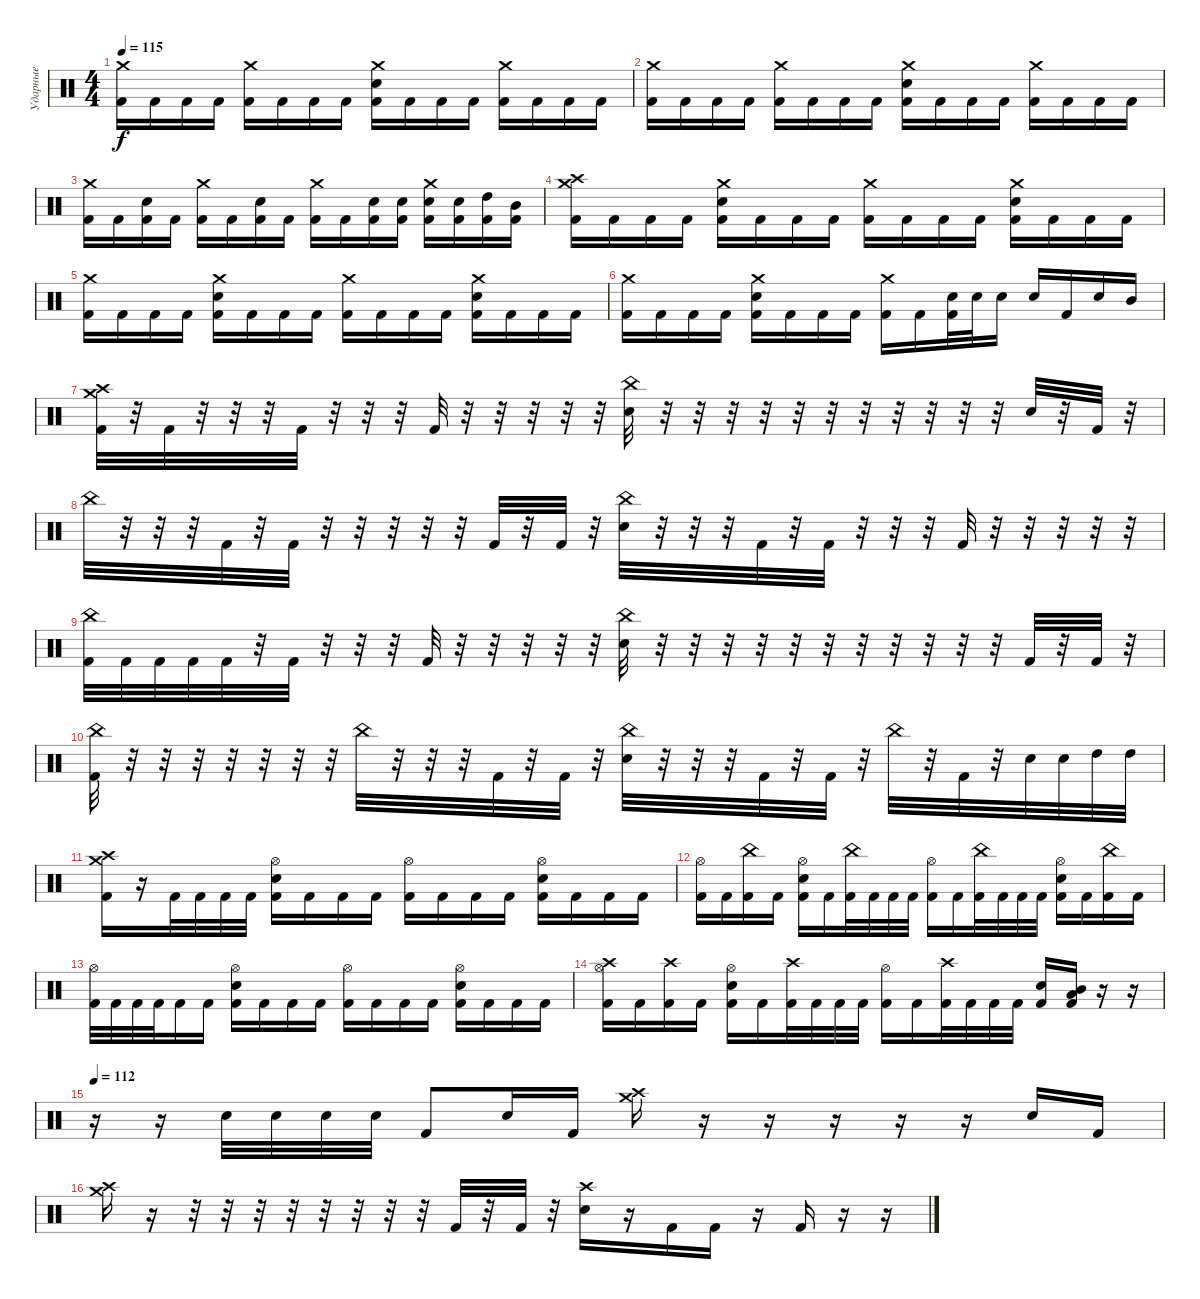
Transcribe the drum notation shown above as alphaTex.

\track ("Ударные" "Ударные") {instrument percussion}
\staff {score}
\articulation defaults
\ts (4 4)
\tempo 115
\clef neutral
\ks c
("Crash medium (hit)" "Kick (hit) 2").16{dy f} "Kick (hit) 2".16 "Kick (hit) 2".16 "Kick (hit) 2".16 ("Crash medium (hit)" "Kick (hit) 2").16 "Kick (hit) 2".16 "Kick (hit) 2".16 "Kick (hit) 2".16 ("Crash medium (hit)" "Electric Snare (hit)" "Kick (hit) 2").16 "Kick (hit) 2".16 "Kick (hit) 2".16 "Kick (hit) 2".16 ("Crash medium (hit)" "Kick (hit) 2").16 "Kick (hit) 2".16 "Kick (hit) 2".16 "Kick (hit) 2".16 |
("Crash medium (hit)" "Kick (hit) 2").16 "Kick (hit) 2".16 "Kick (hit) 2".16 "Kick (hit) 2".16 ("Crash medium (hit)" "Kick (hit) 2").16 "Kick (hit) 2".16 "Kick (hit) 2".16 "Kick (hit) 2".16 ("Crash medium (hit)" "Electric Snare (hit)" "Kick (hit) 2").16 "Kick (hit) 2".16 "Kick (hit) 2".16 "Kick (hit) 2".16 ("Crash medium (hit)" "Kick (hit) 2").16 "Kick (hit) 2".16 "Kick (hit) 2".16 "Kick (hit) 2".16 |
("Crash medium (hit)" "Kick (hit) 2").16 "Kick (hit) 2".16 ("Electric Snare (hit)" "Kick (hit) 2").16 "Kick (hit) 2".16 ("Crash medium (hit)" "Kick (hit) 2").16 "Kick (hit) 2".16 ("Electric Snare (hit)" "Kick (hit) 2").16 "Kick (hit) 2".16 ("Crash medium (hit)" "Kick (hit) 2").16 "Kick (hit) 2".16 ("Electric Snare (hit)" "Kick (hit) 2").16 ("Electric Snare (hit)" "Kick (hit) 2").16 ("Crash medium (hit)" "Electric Snare (hit)" "Kick (hit) 2").16 ("Electric Snare (hit)" "Kick (hit) 2").16 ("High Tom (hit)" "Kick (hit) 2").16 ("Mid Tom (hit)" "Kick (hit) 2").16 |
("Crash medium (hit)" "Crash high (hit)" "Kick (hit) 2").16 "Kick (hit) 2".16 "Kick (hit) 2".16 "Kick (hit) 2".16 ("Crash medium (hit)" "Electric Snare (hit)" "Kick (hit) 2").16 "Kick (hit) 2".16 "Kick (hit) 2".16 "Kick (hit) 2".16 ("Crash medium (hit)" "Kick (hit) 2").16 "Kick (hit) 2".16 "Kick (hit) 2".16 "Kick (hit) 2".16 ("Crash medium (hit)" "Electric Snare (hit)" "Kick (hit) 2").16 "Kick (hit) 2".16 "Kick (hit) 2".16 "Kick (hit) 2".16 |
("Crash medium (hit)" "Kick (hit) 2").16 "Kick (hit) 2".16 "Kick (hit) 2".16 "Kick (hit) 2".16 ("Crash medium (hit)" "Electric Snare (hit)" "Kick (hit) 2").16 "Kick (hit) 2".16 "Kick (hit) 2".16 "Kick (hit) 2".16 ("Crash medium (hit)" "Kick (hit) 2").16 "Kick (hit) 2".16 "Kick (hit) 2".16 "Kick (hit) 2".16 ("Crash medium (hit)" "Electric Snare (hit)" "Kick (hit) 2").16 "Kick (hit) 2".16 "Kick (hit) 2".16 "Kick (hit) 2".16 |
("Crash medium (hit)" "Kick (hit) 2").16 "Kick (hit) 2".16 "Kick (hit) 2".16 "Kick (hit) 2".16 ("Crash medium (hit)" "Electric Snare (hit)" "Kick (hit) 2").16 "Kick (hit) 2".16 "Kick (hit) 2".16 "Kick (hit) 2".16 ("Crash medium (hit)" "Kick (hit) 2").16 "Kick (hit) 2".16 ("Electric Snare (hit)" "Kick (hit) 2").32 "Electric Snare (hit)".32 "Electric Snare (hit)".16 "Electric Snare (hit)".16 "Kick (hit) 2".16 "Electric Snare (hit)".16 "Mid Tom (hit)".16 |
("Crash medium (hit)" "Crash high (hit)" "Kick (hit) 2").32 r.32 "Kick (hit) 2".32 r.32 r.32 r.32 "Kick (hit) 2".32 r.32 r.32 r.32 "Kick (hit) 2".32 r.32 r.32 r.32 r.32 r.32 ("China (hit)" "Electric Snare (hit)").32 r.32 r.32 r.32 r.32 r.32 r.32 r.32 r.32 r.32 r.32 r.32 "Electric Snare (hit)".32 r.32 "Kick (hit) 2".32 r.32 |
"China (hit)".32 r.32 r.32 r.32 "Kick (hit) 2".32 r.32 "Kick (hit) 2".32 r.32 r.32 r.32 r.32 r.32 "Kick (hit) 2".32 r.32 "Kick (hit) 2".32 r.32 ("China (hit)" "Electric Snare (hit)").32 r.32 r.32 r.32 "Kick (hit) 2".32 r.32 "Kick (hit) 2".32 r.32 r.32 r.32 "Kick (hit) 2".32 r.32 r.32 r.32 r.32 r.32 |
("China (hit)" "Kick (hit) 2").32 "Kick (hit) 2".32 "Kick (hit) 2".32 "Kick (hit) 2".32 "Kick (hit) 2".32 r.32 "Kick (hit) 2".32 r.32 r.32 r.32 "Kick (hit) 2".32 r.32 r.32 r.32 r.32 r.32 ("China (hit)" "Electric Snare (hit)").32 r.32 r.32 r.32 r.32 r.32 r.32 r.32 r.32 r.32 r.32 r.32 "Kick (hit) 2".32 r.32 "Kick (hit) 2".32 r.32 |
("China (hit)" "Kick (hit) 2").32 r.32 r.32 r.32 r.32 r.32 r.32 r.32 "China (hit)".32 r.32 r.32 r.32 "Kick (hit) 2".32 r.32 "Kick (hit) 2".32 r.32 ("China (hit)" "Electric Snare (hit)").32 r.32 r.32 r.32 "Kick (hit) 2".32 r.32 "Kick (hit) 2".32 r.32 "China (hit)".32 r.32 "Kick (hit) 2".32 r.32 "Electric Snare (hit)".32 "Electric Snare (hit)".32 "High Tom (hit)".32 "High Tom (hit)".32 |
("Crash high (hit)" "Crash medium (hit)" "Kick (hit) 2").16 r.16 "Kick (hit) 2".32 "Kick (hit) 2".32 "Kick (hit) 2".32 "Kick (hit) 2".32 ("Hi-Hat (open)" "Electric Snare (hit)" "Kick (hit) 2").16 "Kick (hit) 2".16 "Kick (hit) 2".16 "Kick (hit) 2".16 ("Hi-Hat (open)" "Kick (hit) 2").16 "Kick (hit) 2".16 "Kick (hit) 2".16 "Kick (hit) 2".16 ("Hi-Hat (open)" "Electric Snare (hit)" "Kick (hit) 2").16 "Kick (hit) 2".16 "Kick (hit) 2".16 "Kick (hit) 2".16 |
("Hi-Hat (open)" "Kick (hit) 2").16 "Kick (hit) 2".16 ("China (hit)" "Kick (hit) 2").16 "Kick (hit) 2".16 ("Hi-Hat (open)" "Electric Snare (hit)" "Kick (hit) 2").16 "Kick (hit) 2".16 ("China (hit)" "Kick (hit) 2").32 "Kick (hit) 2".32 "Kick (hit) 2".32 "Kick (hit) 2".32 ("Hi-Hat (open)" "Kick (hit) 2").16 "Kick (hit) 2".16 ("China (hit)" "Kick (hit) 2").32 "Kick (hit) 2".32 "Kick (hit) 2".32 "Kick (hit) 2".32 ("Hi-Hat (open)" "Electric Snare (hit)" "Kick (hit) 2").16 "Kick (hit) 2".16 ("China (hit)" "Kick (hit) 2").16 "Kick (hit) 2".16 |
("Hi-Hat (open)" "Kick (hit) 2").32 "Kick (hit) 2".32 "Kick (hit) 2".32 "Kick (hit) 2".32 "Kick (hit) 2".16 "Kick (hit) 2".16 ("Hi-Hat (open)" "Electric Snare (hit)" "Kick (hit) 2").16 "Kick (hit) 2".16 "Kick (hit) 2".16 "Kick (hit) 2".16 ("Hi-Hat (open)" "Kick (hit) 2").16 "Kick (hit) 2".16 "Kick (hit) 2".16 "Kick (hit) 2".16 ("Hi-Hat (open)" "Electric Snare (hit)" "Kick (hit) 2").16 "Kick (hit) 2".16 "Kick (hit) 2".16 "Kick (hit) 2".16 |
("Crash high (hit)" "Hi-Hat (open)" "Kick (hit) 2").16 "Kick (hit) 2".16 ("Crash high (hit)" "Kick (hit) 2").16 "Kick (hit) 2".16 ("Hi-Hat (open)" "Electric Snare (hit)" "Kick (hit) 2").16 "Kick (hit) 2".16 ("Crash high (hit)" "Kick (hit) 2").32 "Kick (hit) 2".32 "Kick (hit) 2".32 "Kick (hit) 2".32 ("Hi-Hat (open)" "Kick (hit) 2").16 "Kick (hit) 2".16 ("Crash high (hit)" "Kick (hit) 2").32 "Kick (hit) 2".32 "Kick (hit) 2".32 "Kick (hit) 2".32 ("Electric Snare (hit)" "Kick (hit) 2").16 ("Mid Tom (hit)" "Low Tom (hit)" "Kick (hit) 2").16 r.16 r.16 |
\tempo 112
r.16 r.16 "Electric Snare (hit)".32 "Electric Snare (hit)".32 "Electric Snare (hit)".32 "Electric Snare (hit)".32 "Kick (hit) 2".8 "Electric Snare (hit)".16 "Kick (hit) 2".16 ("Crash medium (hit)" "Crash high (hit)").16 r.16 r.16 r.16 r.16 r.16 "Electric Snare (hit)".16 "Kick (hit) 2".16 |
("Crash high (hit)" "Crash medium (hit)").16 r.16 r.32 r.32 r.32 r.32 r.32 r.32 r.32 r.32 "Kick (hit) 2".32 r.32 "Kick (hit) 2".32 r.32 ("Crash high (hit)" "Electric Snare (hit)").16 r.16 "Kick (hit) 2".16 "Kick (hit) 2".16 r.16 "Kick (hit) 2".16 r.16 r.16
